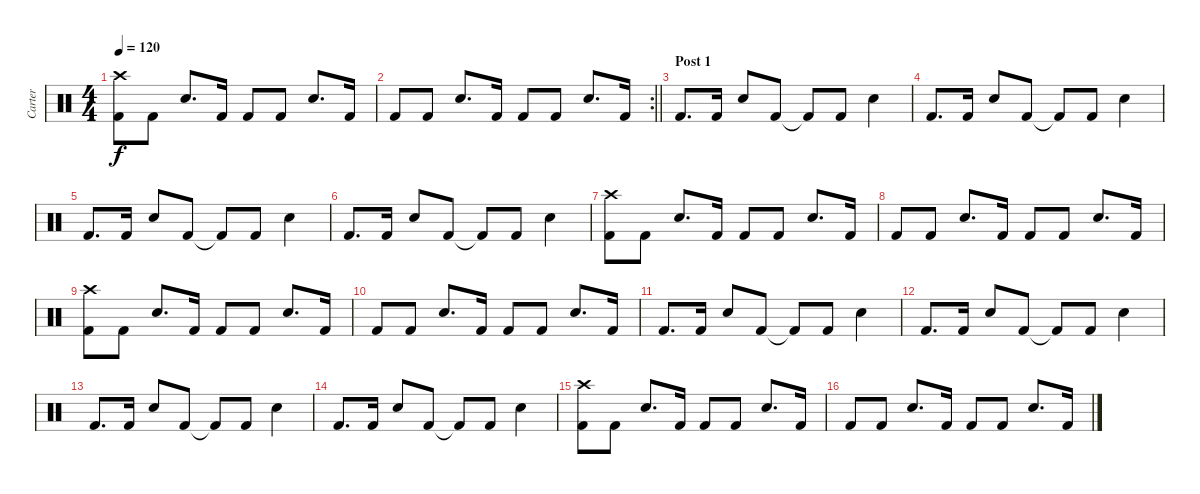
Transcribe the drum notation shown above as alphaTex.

\track ("Carter" "Carter") {instrument percussion}
\staff {score}
\articulation defaults
\ts (4 4)
\tempo 120
\clef neutral
\ks c
("Kick (hit) 2" "Crash high (hit)").8{dy f} "Kick (hit) 2".8 "Electric Snare (hit)".8{d} "Kick (hit) 2".16 "Kick (hit) 2".8 "Kick (hit) 2".8 "Electric Snare (hit)".8{d} "Kick (hit) 2".16 |
\rc 2
\barLineRight lightlight "Kick (hit) 2".8 "Kick (hit) 2".8 "Electric Snare (hit)".8{d} "Kick (hit) 2".16 "Kick (hit) 2".8 "Kick (hit) 2".8 "Electric Snare (hit)".8{d} "Kick (hit) 2".16
|
\section ("" "Post 1")
"Kick (hit) 2".8{d} "Kick (hit) 2".16 "Electric Snare (hit)".8 "Kick (hit) 2".8 "Kick (hit) 2"{t}.8 "Kick (hit) 2".8 "Electric Snare (hit)".4 |
"Kick (hit) 2".8{d} "Kick (hit) 2".16 "Electric Snare (hit)".8 "Kick (hit) 2".8 "Kick (hit) 2"{t}.8 "Kick (hit) 2".8 "Electric Snare (hit)".4 |
"Kick (hit) 2".8{d} "Kick (hit) 2".16 "Electric Snare (hit)".8 "Kick (hit) 2".8 "Kick (hit) 2"{t}.8 "Kick (hit) 2".8 "Electric Snare (hit)".4 |
"Kick (hit) 2".8{d} "Kick (hit) 2".16 "Electric Snare (hit)".8 "Kick (hit) 2".8 "Kick (hit) 2"{t}.8 "Kick (hit) 2".8 "Electric Snare (hit)".4 |
("Kick (hit) 2" "Crash high (hit)").8 "Kick (hit) 2".8 "Electric Snare (hit)".8{d} "Kick (hit) 2".16 "Kick (hit) 2".8 "Kick (hit) 2".8 "Electric Snare (hit)".8{d} "Kick (hit) 2".16 |
"Kick (hit) 2".8 "Kick (hit) 2".8 "Electric Snare (hit)".8{d} "Kick (hit) 2".16 "Kick (hit) 2".8 "Kick (hit) 2".8 "Electric Snare (hit)".8{d} "Kick (hit) 2".16 |
("Kick (hit) 2" "Crash high (hit)").8 "Kick (hit) 2".8 "Electric Snare (hit)".8{d} "Kick (hit) 2".16 "Kick (hit) 2".8 "Kick (hit) 2".8 "Electric Snare (hit)".8{d} "Kick (hit) 2".16 |
"Kick (hit) 2".8 "Kick (hit) 2".8 "Electric Snare (hit)".8{d} "Kick (hit) 2".16 "Kick (hit) 2".8 "Kick (hit) 2".8 "Electric Snare (hit)".8{d} "Kick (hit) 2".16 |
"Kick (hit) 2".8{d} "Kick (hit) 2".16 "Electric Snare (hit)".8 "Kick (hit) 2".8 "Kick (hit) 2"{t}.8 "Kick (hit) 2".8 "Electric Snare (hit)".4 |
"Kick (hit) 2".8{d} "Kick (hit) 2".16 "Electric Snare (hit)".8 "Kick (hit) 2".8 "Kick (hit) 2"{t}.8 "Kick (hit) 2".8 "Electric Snare (hit)".4 |
"Kick (hit) 2".8{d} "Kick (hit) 2".16 "Electric Snare (hit)".8 "Kick (hit) 2".8 "Kick (hit) 2"{t}.8 "Kick (hit) 2".8 "Electric Snare (hit)".4 |
"Kick (hit) 2".8{d} "Kick (hit) 2".16 "Electric Snare (hit)".8 "Kick (hit) 2".8 "Kick (hit) 2"{t}.8 "Kick (hit) 2".8 "Electric Snare (hit)".4 |
("Kick (hit) 2" "Crash high (hit)").8 "Kick (hit) 2".8 "Electric Snare (hit)".8{d} "Kick (hit) 2".16 "Kick (hit) 2".8 "Kick (hit) 2".8 "Electric Snare (hit)".8{d} "Kick (hit) 2".16 |
"Kick (hit) 2".8 "Kick (hit) 2".8 "Electric Snare (hit)".8{d} "Kick (hit) 2".16 "Kick (hit) 2".8 "Kick (hit) 2".8 "Electric Snare (hit)".8{d} "Kick (hit) 2".16
